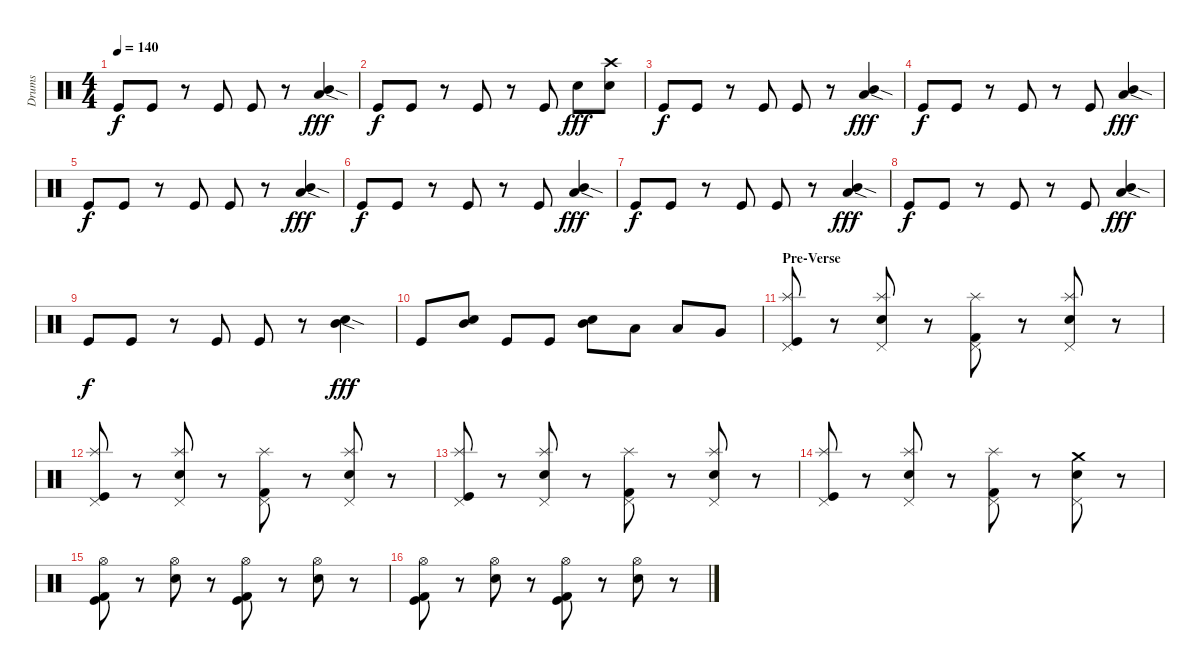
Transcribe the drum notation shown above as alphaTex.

\track ("Drums" "Drums") {instrument percussion}
\staff {score}
\articulation defaults
\ts (4 4)
\tempo 140
\clef neutral
\ks c "Kick (hit)".8{dy f} "Kick (hit)".8
r.8 "Kick (hit)".8 "Kick (hit)".8 r.8 ("Mid Tom (hit)"{sod} "Low Tom (hit)"{sod}).4{dy fff} |
"Kick (hit)".8{dy f} "Kick (hit)".8 r.8 "Kick (hit)".8 r.8 "Kick (hit)".8 "Electric Snare (hit)".8{dy fff} ("Crash high (hit)" "Electric Snare (hit)").8 |
"Kick (hit)".8{dy f} "Kick (hit)".8 r.8 "Kick (hit)".8 "Kick (hit)".8 r.8 ("Mid Tom (hit)"{sod} "Low Tom (hit)"{sod}).4{dy fff} |
"Kick (hit)".8{dy f} "Kick (hit)".8 r.8 "Kick (hit)".8 r.8 "Kick (hit)".8 ("Mid Tom (hit)"{sod} "Low Tom (hit)"{sod}).4{dy fff} |
"Kick (hit)".8{dy f} "Kick (hit)".8 r.8 "Kick (hit)".8 "Kick (hit)".8 r.8 ("Mid Tom (hit)"{sod} "Low Tom (hit)"{sod}).4{dy fff} |
"Kick (hit)".8{dy f} "Kick (hit)".8 r.8 "Kick (hit)".8 r.8 "Kick (hit)".8 ("Mid Tom (hit)"{sod} "Low Tom (hit)"{sod}).4{dy fff} |
"Kick (hit)".8{dy f} "Kick (hit)".8 r.8 "Kick (hit)".8 "Kick (hit)".8 r.8 ("Mid Tom (hit)"{sod} "Low Tom (hit)"{sod}).4{dy fff} |
"Kick (hit)".8{dy f} "Kick (hit)".8 r.8 "Kick (hit)".8 r.8 "Kick (hit)".8 ("Mid Tom (hit)"{sod} "Low Tom (hit)"{sod}).4{dy fff} |
"Kick (hit)".8{dy f} "Kick (hit)".8 r.8 "Kick (hit)".8 "Kick (hit)".8 r.8 ("Mid Tom (hit)"{sod} "Electric Snare (hit)"{sod}).4{dy fff} |
"Kick (hit)".8 ("Mid Tom (hit)" "Electric Snare (hit)").8 "Kick (hit)".8 "Kick (hit)".8 ("Electric Snare (hit)" "Mid Tom (hit)").8 "Low Tom (hit)".8 "Low Tom (hit)".8 "Very Low Tom (hit)".8 |
\section ("" "Pre-Verse")
("Splash (hit)" "Pedal Hi-Hat (hit)" "Kick (hit)").8 r.8 ("Splash (hit)" "Pedal Hi-Hat (hit)" "Electric Snare (hit)").8 r.8 ("Splash (hit)" "Pedal Hi-Hat (hit)" "Kick (hit) 2").8 r.8 ("Splash (hit)" "Pedal Hi-Hat (hit)" "Electric Snare (hit)").8 r.8 |
("Splash (hit)" "Pedal Hi-Hat (hit)" "Kick (hit)").8 r.8 ("Splash (hit)" "Pedal Hi-Hat (hit)" "Electric Snare (hit)").8 r.8 ("Splash (hit)" "Pedal Hi-Hat (hit)" "Kick (hit) 2").8 r.8 ("Splash (hit)" "Pedal Hi-Hat (hit)" "Electric Snare (hit)").8 r.8 |
("Splash (hit)" "Pedal Hi-Hat (hit)" "Kick (hit)").8 r.8 ("Splash (hit)" "Pedal Hi-Hat (hit)" "Electric Snare (hit)").8 r.8 ("Splash (hit)" "Pedal Hi-Hat (hit)" "Kick (hit) 2").8 r.8 ("Splash (hit)" "Pedal Hi-Hat (hit)" "Electric Snare (hit)").8 r.8 |
("Splash (hit)" "Pedal Hi-Hat (hit)" "Kick (hit)").8 r.8 ("Splash (hit)" "Pedal Hi-Hat (hit)" "Electric Snare (hit)").8 r.8 ("Splash (hit)" "Pedal Hi-Hat (hit)" "Kick (hit) 2").8 r.8 ("Crash medium (hit)" "Pedal Hi-Hat (hit)" "Electric Snare (hit)").8 r.8 |
("Hi-Hat (open)" "Kick (hit) 2" "Kick (hit)").8 r.8 ("Hi-Hat (open)" "Electric Snare (hit)").8 r.8 ("Hi-Hat (open)" "Kick (hit) 2" "Kick (hit)").8 r.8 ("Hi-Hat (open)" "Electric Snare (hit)").8 r.8 |
("Hi-Hat (open)" "Kick (hit) 2" "Kick (hit)").8 r.8 ("Hi-Hat (open)" "Electric Snare (hit)").8 r.8 ("Hi-Hat (open)" "Kick (hit) 2" "Kick (hit)").8 r.8 ("Hi-Hat (open)" "Electric Snare (hit)").8 r.8
